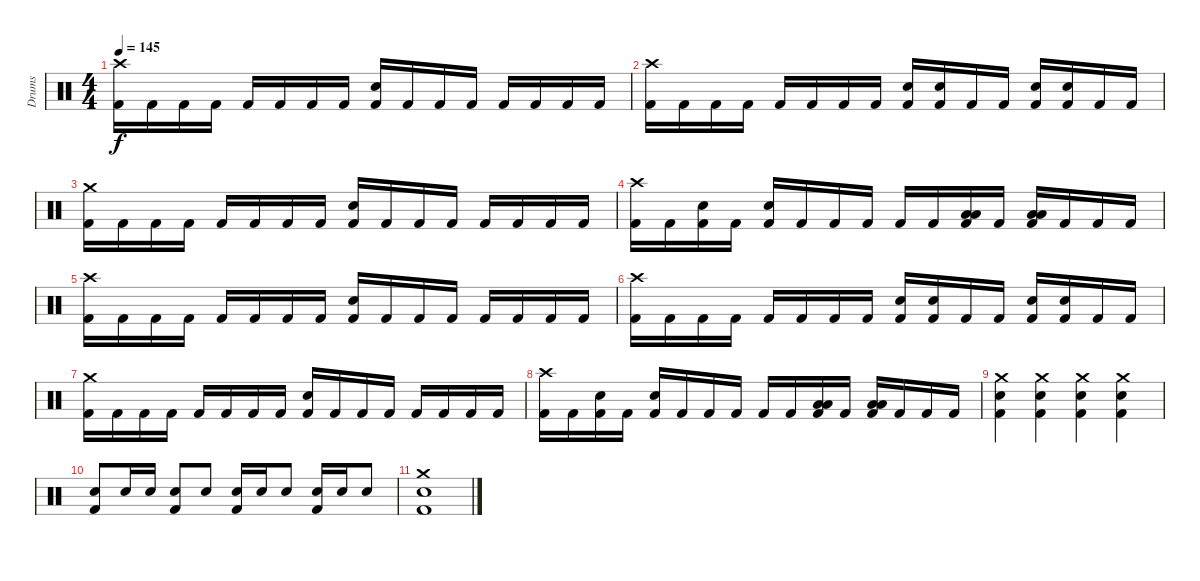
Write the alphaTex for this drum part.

\track ("Drums" "Drums") {instrument percussion}
\staff {score}
\articulation defaults
\ts (4 4)
\tempo 145
\clef neutral
\ks c
("Crash high (hit)" "Kick (hit) 2").16{dy f} "Kick (hit) 2".16 "Kick (hit) 2".16 "Kick (hit) 2".16 "Kick (hit) 2".16 "Kick (hit) 2".16 "Kick (hit) 2".16 "Kick (hit) 2".16 ("Snare (hit) 2" "Kick (hit) 2").16 "Kick (hit) 2".16 "Kick (hit) 2".16 "Kick (hit) 2".16 "Kick (hit) 2".16 "Kick (hit) 2".16 "Kick (hit) 2".16 "Kick (hit) 2".16 |
("Crash high (hit)" "Kick (hit) 2").16 "Kick (hit) 2".16 "Kick (hit) 2".16 "Kick (hit) 2".16 "Kick (hit) 2".16 "Kick (hit) 2".16 "Kick (hit) 2".16 "Kick (hit) 2".16 ("Snare (hit) 2" "Kick (hit) 2").16 ("Snare (hit) 2" "Kick (hit) 2").16 "Kick (hit) 2".16 "Kick (hit) 2".16 ("Snare (hit) 2" "Kick (hit) 2").16 ("Snare (hit) 2" "Kick (hit) 2").16 "Kick (hit) 2".16 "Kick (hit) 2".16 |
("Crash medium (hit)" "Kick (hit) 2").16 "Kick (hit) 2".16 "Kick (hit) 2".16 "Kick (hit) 2".16 "Kick (hit) 2".16 "Kick (hit) 2".16 "Kick (hit) 2".16 "Kick (hit) 2".16 ("Snare (hit) 2" "Kick (hit) 2").16 "Kick (hit) 2".16 "Kick (hit) 2".16 "Kick (hit) 2".16 "Kick (hit) 2".16 "Kick (hit) 2".16 "Kick (hit) 2".16 "Kick (hit) 2".16 |
("Crash high (hit)" "Kick (hit) 2").16 "Kick (hit) 2".16 ("Snare (hit) 2" "Kick (hit) 2").16 "Kick (hit) 2".16 ("Snare (hit) 2" "Kick (hit) 2").16 "Kick (hit) 2".16 "Kick (hit) 2".16 "Kick (hit) 2".16 "Kick (hit) 2".16 "Kick (hit) 2".16 ("Low Tom (hit)" "Low Tom (hit)" "Kick (hit) 2").16 "Kick (hit) 2".16 ("Low Tom (hit)" "Low Tom (hit)" "Kick (hit) 2").16 "Kick (hit) 2".16 "Kick (hit) 2".16 "Kick (hit) 2".16 |
("Crash high (hit)" "Kick (hit) 2").16 "Kick (hit) 2".16 "Kick (hit) 2".16 "Kick (hit) 2".16 "Kick (hit) 2".16 "Kick (hit) 2".16 "Kick (hit) 2".16 "Kick (hit) 2".16 ("Snare (hit) 2" "Kick (hit) 2").16 "Kick (hit) 2".16 "Kick (hit) 2".16 "Kick (hit) 2".16 "Kick (hit) 2".16 "Kick (hit) 2".16 "Kick (hit) 2".16 "Kick (hit) 2".16 |
("Crash high (hit)" "Kick (hit) 2").16 "Kick (hit) 2".16 "Kick (hit) 2".16 "Kick (hit) 2".16 "Kick (hit) 2".16 "Kick (hit) 2".16 "Kick (hit) 2".16 "Kick (hit) 2".16 ("Snare (hit) 2" "Kick (hit) 2").16 ("Snare (hit) 2" "Kick (hit) 2").16 "Kick (hit) 2".16 "Kick (hit) 2".16 ("Snare (hit) 2" "Kick (hit) 2").16 ("Snare (hit) 2" "Kick (hit) 2").16 "Kick (hit) 2".16 "Kick (hit) 2".16 |
("Crash medium (hit)" "Kick (hit) 2").16 "Kick (hit) 2".16 "Kick (hit) 2".16 "Kick (hit) 2".16 "Kick (hit) 2".16 "Kick (hit) 2".16 "Kick (hit) 2".16 "Kick (hit) 2".16 ("Snare (hit) 2" "Kick (hit) 2").16 "Kick (hit) 2".16 "Kick (hit) 2".16 "Kick (hit) 2".16 "Kick (hit) 2".16 "Kick (hit) 2".16 "Kick (hit) 2".16 "Kick (hit) 2".16 |
("Crash high (hit)" "Kick (hit) 2").16 "Kick (hit) 2".16 ("Snare (hit) 2" "Kick (hit) 2").16 "Kick (hit) 2".16 ("Snare (hit) 2" "Kick (hit) 2").16 "Kick (hit) 2".16 "Kick (hit) 2".16 "Kick (hit) 2".16 "Kick (hit) 2".16 "Kick (hit) 2".16 ("Low Tom (hit)" "Low Tom (hit)" "Kick (hit) 2").16 "Kick (hit) 2".16 ("Low Tom (hit)" "Low Tom (hit)" "Kick (hit) 2").16 "Kick (hit) 2".16 "Kick (hit) 2".16 "Kick (hit) 2".16 |
("Crash medium (hit)" "Snare (hit) 2" "Kick (hit) 2").4 ("Crash medium (hit)" "Snare (hit) 2" "Kick (hit) 2").4 ("Crash medium (hit)" "Snare (hit) 2" "Kick (hit) 2").4 ("Crash medium (hit)" "Snare (hit) 2" "Kick (hit) 2").4 |
("Snare (hit) 2" "Kick (hit) 2").8 "Snare (hit) 2".16 "Snare (hit) 2".16 ("Snare (hit) 2" "Kick (hit) 2").8 "Snare (hit) 2".8 ("Snare (hit) 2" "Kick (hit) 2").16 "Snare (hit) 2".16 "Snare (hit) 2".8 ("Snare (hit) 2" "Kick (hit) 2").16 "Snare (hit) 2".16 "Snare (hit) 2".8 |
("Crash medium (hit)" "Snare (hit) 2" "Kick (hit) 2").1
